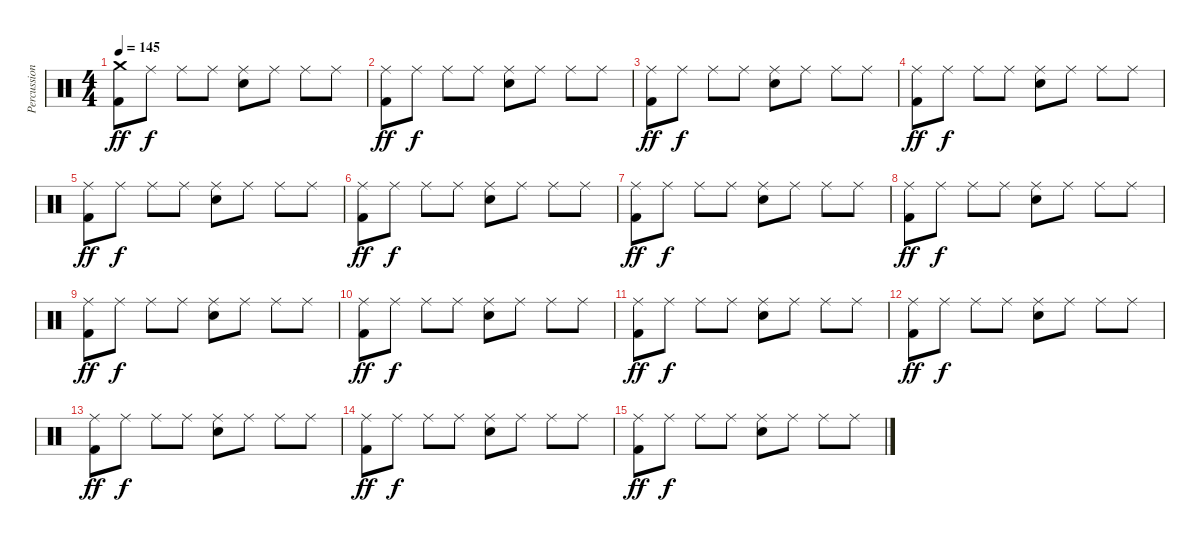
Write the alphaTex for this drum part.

\track ("Percussions" "Percussion") {instrument percussion}
\staff {score}
\articulation defaults
\ts (4 4)
\tempo 145
\clef neutral
\ks c
("Crash medium (hit)" "Kick (hit) 2").8{dy ff} "Ride (middle)".8{dy f} "Ride (middle)".8 "Ride (middle)".8 ("Ride (middle)" "Snare (hit) 2").8 "Ride (middle)".8 "Ride (middle)".8 "Ride (middle)".8 |
("Ride (middle)" "Kick (hit) 2").8{dy ff} "Ride (middle)".8{dy f} "Ride (middle)".8 "Ride (middle)".8 ("Ride (middle)" "Snare (hit) 2").8 "Ride (middle)".8 "Ride (middle)".8 "Ride (middle)".8 |
("Ride (middle)" "Kick (hit) 2").8{dy ff} "Ride (middle)".8{dy f} "Ride (middle)".8 "Ride (middle)".8 ("Ride (middle)" "Snare (hit) 2").8 "Ride (middle)".8 "Ride (middle)".8 "Ride (middle)".8 |
("Ride (middle)" "Kick (hit) 2").8{dy ff} "Ride (middle)".8{dy f} "Ride (middle)".8 "Ride (middle)".8 ("Ride (middle)" "Snare (hit) 2").8 "Ride (middle)".8 "Ride (middle)".8 "Ride (middle)".8 |
("Ride (middle)" "Kick (hit) 2").8{dy ff} "Ride (middle)".8{dy f} "Ride (middle)".8 "Ride (middle)".8 ("Ride (middle)" "Snare (hit) 2").8 "Ride (middle)".8 "Ride (middle)".8 "Ride (middle)".8 |
("Ride (middle)" "Kick (hit) 2").8{dy ff} "Ride (middle)".8{dy f} "Ride (middle)".8 "Ride (middle)".8 ("Ride (middle)" "Snare (hit) 2").8 "Ride (middle)".8 "Ride (middle)".8 "Ride (middle)".8 |
("Ride (middle)" "Kick (hit) 2").8{dy ff} "Ride (middle)".8{dy f} "Ride (middle)".8 "Ride (middle)".8 ("Ride (middle)" "Snare (hit) 2").8 "Ride (middle)".8 "Ride (middle)".8 "Ride (middle)".8 |
("Ride (middle)" "Kick (hit) 2").8{dy ff} "Ride (middle)".8{dy f} "Ride (middle)".8 "Ride (middle)".8 ("Ride (middle)" "Snare (hit) 2").8 "Ride (middle)".8 "Ride (middle)".8 "Ride (middle)".8 |
("Ride (middle)" "Kick (hit) 2").8{dy ff} "Ride (middle)".8{dy f} "Ride (middle)".8 "Ride (middle)".8 ("Ride (middle)" "Snare (hit) 2").8 "Ride (middle)".8 "Ride (middle)".8 "Ride (middle)".8 |
("Ride (middle)" "Kick (hit) 2").8{dy ff} "Ride (middle)".8{dy f} "Ride (middle)".8 "Ride (middle)".8 ("Ride (middle)" "Snare (hit) 2").8 "Ride (middle)".8 "Ride (middle)".8 "Ride (middle)".8 |
("Ride (middle)" "Kick (hit) 2").8{dy ff} "Ride (middle)".8{dy f} "Ride (middle)".8 "Ride (middle)".8 ("Ride (middle)" "Snare (hit) 2").8 "Ride (middle)".8 "Ride (middle)".8 "Ride (middle)".8 |
("Ride (middle)" "Kick (hit) 2").8{dy ff} "Ride (middle)".8{dy f} "Ride (middle)".8 "Ride (middle)".8 ("Ride (middle)" "Snare (hit) 2").8 "Ride (middle)".8 "Ride (middle)".8 "Ride (middle)".8 |
("Ride (middle)" "Kick (hit) 2").8{dy ff} "Ride (middle)".8{dy f} "Ride (middle)".8 "Ride (middle)".8 ("Ride (middle)" "Snare (hit) 2").8 "Ride (middle)".8 "Ride (middle)".8 "Ride (middle)".8 |
("Ride (middle)" "Kick (hit) 2").8{dy ff} "Ride (middle)".8{dy f} "Ride (middle)".8 "Ride (middle)".8 ("Ride (middle)" "Snare (hit) 2").8 "Ride (middle)".8 "Ride (middle)".8 "Ride (middle)".8 |
("Ride (middle)" "Kick (hit) 2").8{dy ff} "Ride (middle)".8{dy f} "Ride (middle)".8 "Ride (middle)".8 ("Ride (middle)" "Snare (hit) 2").8 "Ride (middle)".8 "Ride (middle)".8 "Ride (middle)".8
